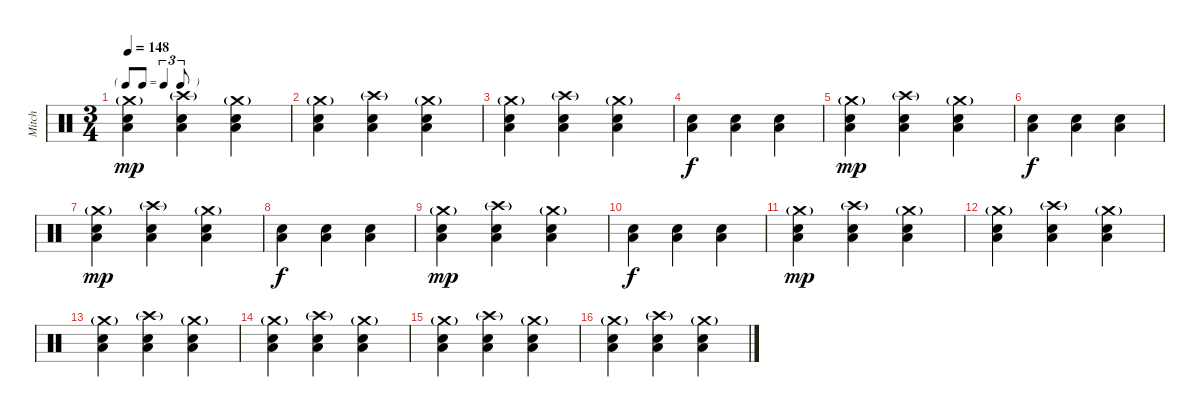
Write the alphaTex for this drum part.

\track ("Mitch" "Mitch") {instrument percussion}
\staff {score}
\articulation defaults
\ts (3 4)
\tf triplet8th
\tempo 148
\clef neutral
\ks c
("Snare (hit) 2" "Crash medium (hit)"{g} "Low Tom (hit)").4{dy mp} ("Snare (hit) 2" "Crash high (hit)"{g} "Low Tom (hit)").4 ("Snare (hit) 2" "Crash medium (hit)"{g} "Low Tom (hit)").4 |
("Snare (hit) 2" "Crash medium (hit)"{g} "Low Tom (hit)").4 ("Snare (hit) 2" "Crash high (hit)"{g} "Low Tom (hit)").4 ("Snare (hit) 2" "Crash medium (hit)"{g} "Low Tom (hit)").4 |
("Snare (hit) 2" "Crash medium (hit)"{g} "Low Tom (hit)").4 ("Snare (hit) 2" "Crash high (hit)"{g} "Low Tom (hit)").4 ("Snare (hit) 2" "Crash medium (hit)"{g} "Low Tom (hit)").4 |
("Snare (hit) 2" "Low Tom (hit)").4{dy f} ("Snare (hit) 2" "Low Tom (hit)").4 ("Snare (hit) 2" "Low Tom (hit)").4 |
("Snare (hit) 2" "Crash medium (hit)"{g} "Low Tom (hit)").4{dy mp} ("Snare (hit) 2" "Crash high (hit)"{g} "Low Tom (hit)").4 ("Snare (hit) 2" "Crash medium (hit)"{g} "Low Tom (hit)").4 |
("Snare (hit) 2" "Low Tom (hit)").4{dy f} ("Snare (hit) 2" "Low Tom (hit)").4 ("Snare (hit) 2" "Low Tom (hit)").4 |
("Snare (hit) 2" "Crash medium (hit)"{g} "Low Tom (hit)").4{dy mp} ("Snare (hit) 2" "Crash high (hit)"{g} "Low Tom (hit)").4 ("Snare (hit) 2" "Crash medium (hit)"{g} "Low Tom (hit)").4 |
("Snare (hit) 2" "Low Tom (hit)").4{dy f} ("Snare (hit) 2" "Low Tom (hit)").4 ("Snare (hit) 2" "Low Tom (hit)").4 |
("Snare (hit) 2" "Crash medium (hit)"{g} "Low Tom (hit)").4{dy mp} ("Snare (hit) 2" "Crash high (hit)"{g} "Low Tom (hit)").4 ("Snare (hit) 2" "Crash medium (hit)"{g} "Low Tom (hit)").4 |
("Snare (hit) 2" "Low Tom (hit)").4{dy f} ("Snare (hit) 2" "Low Tom (hit)").4 ("Snare (hit) 2" "Low Tom (hit)").4 |
("Snare (hit) 2" "Crash medium (hit)"{g} "Low Tom (hit)").4{dy mp} ("Snare (hit) 2" "Crash high (hit)"{g} "Low Tom (hit)").4 ("Snare (hit) 2" "Crash medium (hit)"{g} "Low Tom (hit)").4 |
("Snare (hit) 2" "Crash medium (hit)"{g} "Low Tom (hit)").4 ("Snare (hit) 2" "Crash high (hit)"{g} "Low Tom (hit)").4 ("Snare (hit) 2" "Crash medium (hit)"{g} "Low Tom (hit)").4 |
("Snare (hit) 2" "Crash medium (hit)"{g} "Low Tom (hit)").4 ("Snare (hit) 2" "Crash high (hit)"{g} "Low Tom (hit)").4 ("Snare (hit) 2" "Crash medium (hit)"{g} "Low Tom (hit)").4 |
("Snare (hit) 2" "Crash medium (hit)"{g} "Low Tom (hit)").4 ("Snare (hit) 2" "Crash high (hit)"{g} "Low Tom (hit)").4 ("Snare (hit) 2" "Crash medium (hit)"{g} "Low Tom (hit)").4 |
("Snare (hit) 2" "Crash medium (hit)"{g} "Low Tom (hit)").4 ("Snare (hit) 2" "Crash high (hit)"{g} "Low Tom (hit)").4 ("Snare (hit) 2" "Crash medium (hit)"{g} "Low Tom (hit)").4 |
("Snare (hit) 2" "Crash medium (hit)"{g} "Low Tom (hit)").4 ("Snare (hit) 2" "Crash high (hit)"{g} "Low Tom (hit)").4 ("Snare (hit) 2" "Crash medium (hit)"{g} "Low Tom (hit)").4
